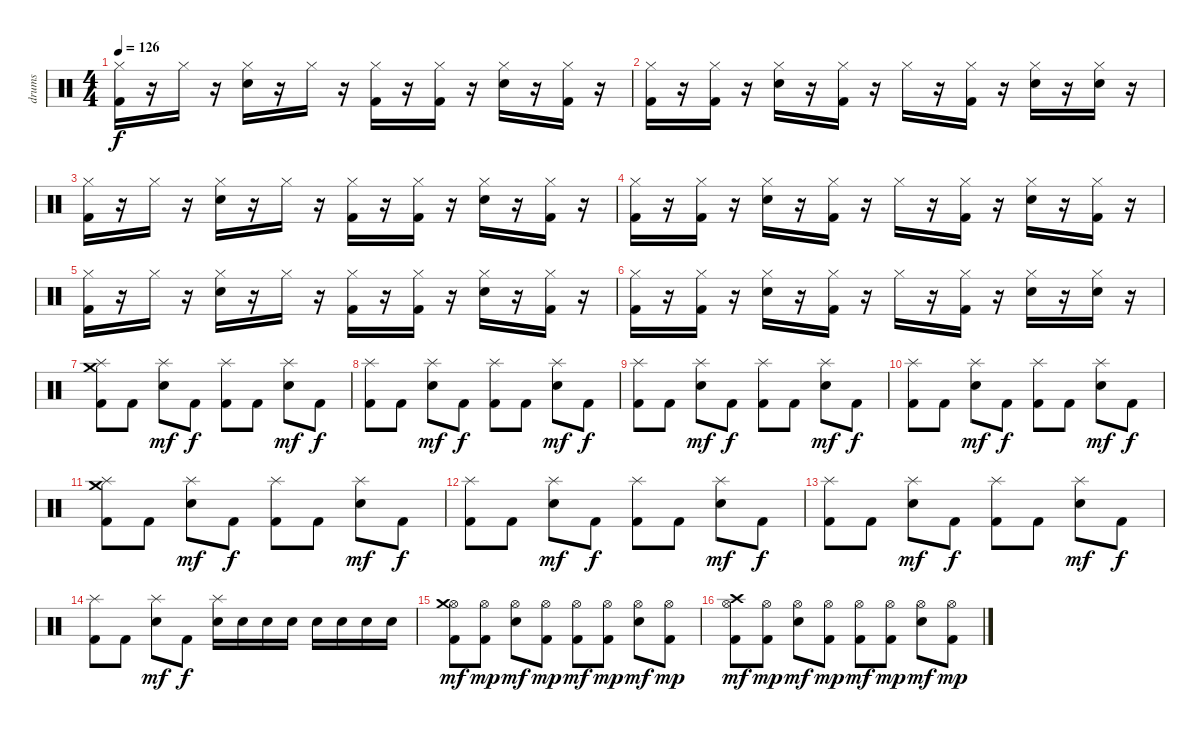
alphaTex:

\track ("drums" "drums") {instrument percussion}
\staff {score}
\articulation defaults
\ts (4 4)
\tempo 126
\clef neutral
\ks c
("Kick (hit) 2" "Hi-Hat (closed)").16{dy f} r.16 "Hi-Hat (closed)".16 r.16 ("Hi-Hat (closed)" "Snare (hit) 2").16 r.16 "Hi-Hat (closed)".16 r.16 ("Kick (hit) 2" "Hi-Hat (closed)").16 r.16 ("Kick (hit) 2" "Hi-Hat (closed)").16 r.16 ("Snare (hit) 2" "Hi-Hat (closed)").16 r.16 ("Kick (hit) 2" "Hi-Hat (closed)").16 r.16 |
("Hi-Hat (closed)" "Kick (hit) 2").16 r.16 ("Hi-Hat (closed)" "Kick (hit) 2").16 r.16 ("Hi-Hat (closed)" "Snare (hit) 2").16 r.16 ("Hi-Hat (closed)" "Kick (hit) 2").16 r.16 "Hi-Hat (closed)".16 r.16 ("Hi-Hat (closed)" "Kick (hit) 2").16 r.16 ("Hi-Hat (closed)" "Snare (hit) 2").16 r.16 ("Hi-Hat (closed)" "Snare (hit) 2").16 r.16 |
("Kick (hit) 2" "Hi-Hat (closed)").16 r.16 "Hi-Hat (closed)".16 r.16 ("Hi-Hat (closed)" "Snare (hit) 2").16 r.16 "Hi-Hat (closed)".16 r.16 ("Kick (hit) 2" "Hi-Hat (closed)").16 r.16 ("Kick (hit) 2" "Hi-Hat (closed)").16 r.16 ("Snare (hit) 2" "Hi-Hat (closed)").16 r.16 ("Kick (hit) 2" "Hi-Hat (closed)").16 r.16 |
("Hi-Hat (closed)" "Kick (hit) 2").16 r.16 ("Hi-Hat (closed)" "Kick (hit) 2").16 r.16 ("Hi-Hat (closed)" "Snare (hit) 2").16 r.16 ("Hi-Hat (closed)" "Kick (hit) 2").16 r.16 "Hi-Hat (closed)".16 r.16 ("Hi-Hat (closed)" "Kick (hit) 2").16 r.16 ("Hi-Hat (closed)" "Snare (hit) 2").16 r.16 ("Hi-Hat (closed)" "Kick (hit) 2").16 r.16 |
("Kick (hit) 2" "Hi-Hat (closed)").16 r.16 "Hi-Hat (closed)".16 r.16 ("Hi-Hat (closed)" "Snare (hit) 2").16 r.16 "Hi-Hat (closed)".16 r.16 ("Kick (hit) 2" "Hi-Hat (closed)").16 r.16 ("Kick (hit) 2" "Hi-Hat (closed)").16 r.16 ("Snare (hit) 2" "Hi-Hat (closed)").16 r.16 ("Kick (hit) 2" "Hi-Hat (closed)").16 r.16 |
("Hi-Hat (closed)" "Kick (hit) 2").16 r.16 ("Hi-Hat (closed)" "Kick (hit) 2").16 r.16 ("Hi-Hat (closed)" "Snare (hit) 2").16 r.16 ("Hi-Hat (closed)" "Kick (hit) 2").16 r.16 "Hi-Hat (closed)".16 r.16 ("Hi-Hat (closed)" "Kick (hit) 2").16 r.16 ("Hi-Hat (closed)" "Snare (hit) 2").16 r.16 ("Hi-Hat (closed)" "Snare (hit) 2").16 r.16 |
("Crash medium (hit)" "Kick (hit) 2" "Splash (hit)").8 "Kick (hit) 2".8 ("Snare (hit) 2" "Splash (hit)").8{dy mf} "Kick (hit) 2".8{dy f} ("Kick (hit) 2" "Splash (hit)").8 "Kick (hit) 2".8 ("Snare (hit) 2" "Splash (hit)").8{dy mf} "Kick (hit) 2".8{dy f} |
("Kick (hit) 2" "Splash (hit)").8 "Kick (hit) 2".8 ("Snare (hit) 2" "Splash (hit)").8{dy mf} "Kick (hit) 2".8{dy f} ("Kick (hit) 2" "Splash (hit)").8 "Kick (hit) 2".8 ("Snare (hit) 2" "Splash (hit)").8{dy mf} "Kick (hit) 2".8{dy f} |
("Kick (hit) 2" "Splash (hit)").8 "Kick (hit) 2".8 ("Snare (hit) 2" "Splash (hit)").8{dy mf} "Kick (hit) 2".8{dy f} ("Kick (hit) 2" "Splash (hit)").8 "Kick (hit) 2".8 ("Snare (hit) 2" "Splash (hit)").8{dy mf} "Kick (hit) 2".8{dy f} |
("Kick (hit) 2" "Splash (hit)").8 "Kick (hit) 2".8 ("Snare (hit) 2" "Splash (hit)").8{dy mf} "Kick (hit) 2".8{dy f} ("Kick (hit) 2" "Splash (hit)").8 "Kick (hit) 2".8 ("Snare (hit) 2" "Splash (hit)").8{dy mf} "Kick (hit) 2".8{dy f} |
("Crash medium (hit)" "Kick (hit) 2" "Splash (hit)").8 "Kick (hit) 2".8 ("Snare (hit) 2" "Splash (hit)").8{dy mf} "Kick (hit) 2".8{dy f} ("Kick (hit) 2" "Splash (hit)").8 "Kick (hit) 2".8 ("Snare (hit) 2" "Splash (hit)").8{dy mf} "Kick (hit) 2".8{dy f} |
("Kick (hit) 2" "Splash (hit)").8 "Kick (hit) 2".8 ("Snare (hit) 2" "Splash (hit)").8{dy mf} "Kick (hit) 2".8{dy f} ("Kick (hit) 2" "Splash (hit)").8 "Kick (hit) 2".8 ("Snare (hit) 2" "Splash (hit)").8{dy mf} "Kick (hit) 2".8{dy f} |
("Kick (hit) 2" "Splash (hit)").8 "Kick (hit) 2".8 ("Snare (hit) 2" "Splash (hit)").8{dy mf} "Kick (hit) 2".8{dy f} ("Kick (hit) 2" "Splash (hit)").8 "Kick (hit) 2".8 ("Snare (hit) 2" "Splash (hit)").8{dy mf} "Kick (hit) 2".8{dy f} |
("Kick (hit) 2" "Splash (hit)").8 "Kick (hit) 2".8 ("Snare (hit) 2" "Splash (hit)").8{dy mf} "Kick (hit) 2".8{dy f} ("Snare (hit) 2" "Splash (hit)").16 "Snare (hit) 2".16 "Snare (hit) 2".16 "Snare (hit) 2".16 "Snare (hit) 2".16 "Snare (hit) 2".16 "Snare (hit) 2".16 "Snare (hit) 2".16 |
("Hi-Hat (open)" "Crash medium (hit)" "Kick (hit) 2").8{dy mf} ("Hi-Hat (open)" "Kick (hit) 2").8{dy mp} ("Snare (hit) 2" "Hi-Hat (open)").8{dy mf} ("Kick (hit) 2" "Hi-Hat (open)").8{dy mp} ("Kick (hit) 2" "Hi-Hat (open)").8{dy mf} ("Kick (hit) 2" "Hi-Hat (open)").8{dy mp} ("Snare (hit) 2" "Hi-Hat (open)").8{dy mf} ("Kick (hit) 2" "Hi-Hat (open)").8{dy mp} |
("Crash high (hit)" "Kick (hit) 2" "Hi-Hat (open)").8{dy mf} ("Kick (hit) 2" "Hi-Hat (open)").8{dy mp} ("Snare (hit) 2" "Hi-Hat (open)").8{dy mf} ("Kick (hit) 2" "Hi-Hat (open)").8{dy mp} ("Kick (hit) 2" "Hi-Hat (open)").8{dy mf} ("Kick (hit) 2" "Hi-Hat (open)").8{dy mp} ("Snare (hit) 2" "Hi-Hat (open)").8{dy mf} ("Kick (hit) 2" "Hi-Hat (open)").8{dy mp}
